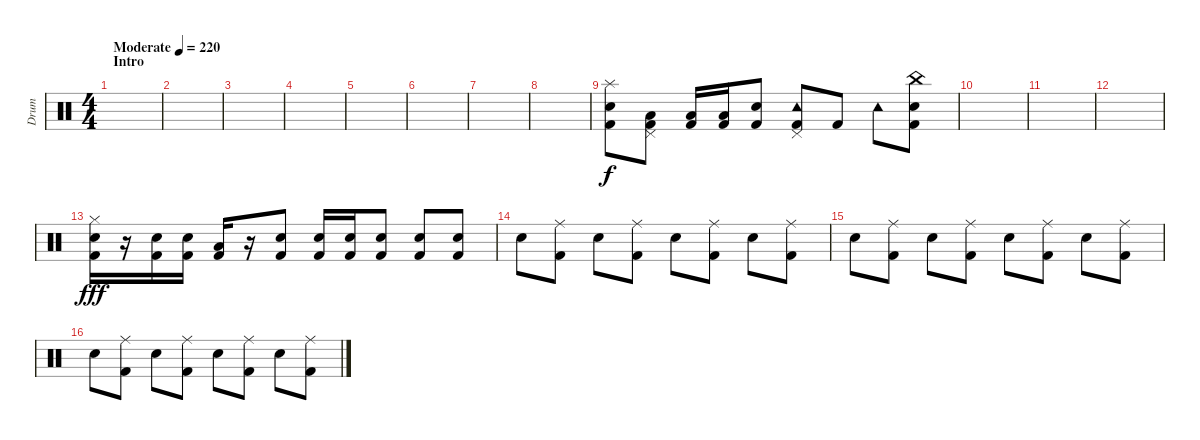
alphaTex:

\track ("Drum" "Drum") {instrument percussion}
\staff {score}
\articulation defaults
\ts (4 4)
\section ("" "Intro")
\tempo (220 "Moderate")
\clef neutral
\ks c
|
|
|
|
|
|
|
|
("Splash (hit)" "Electric Snare (hit)" "Kick (hit) 2").8 ("Pedal Hi-Hat (hit)" "Low Tom (hit)" "Kick (hit) 2").8 ("Low Tom (hit)" "Kick (hit) 2").16 ("Low Tom (hit)" "Kick (hit) 2").16 ("Electric Snare (hit)" "Kick (hit) 2").8 ("Pedal Hi-Hat (hit)" "Tambourine (hit)" "Kick (hit) 2").8 "Kick (hit) 2".8 "Tambourine (hit)".8 ("China (hit)" "Electric Snare (hit)" "Kick (hit) 2").8 |
|
|
|
("Hi-Hat (closed)" "Electric Snare (hit)" "Kick (hit) 2").16{dy fff} r.16 ("Electric Snare (hit)" "Kick (hit) 2").16 ("Electric Snare (hit)" "Kick (hit) 2").16 ("Low Tom (hit)" "Kick (hit) 2").16 r.16 ("Electric Snare (hit)" "Kick (hit) 2").8 ("Electric Snare (hit)" "Kick (hit) 2").16 ("Electric Snare (hit)" "Kick (hit) 2").16 ("Electric Snare (hit)" "Kick (hit) 2").8 ("Electric Snare (hit)" "Kick (hit) 2").8 ("Electric Snare (hit)" "Kick (hit) 2").8 |
"Electric Snare (hit)".8 ("Ride (middle)" "Kick (hit) 2").8 "Electric Snare (hit)".8 ("Ride (middle)" "Kick (hit) 2").8 "Electric Snare (hit)".8 ("Ride (middle)" "Kick (hit) 2").8 "Electric Snare (hit)".8 ("Ride (middle)" "Kick (hit) 2").8 |
"Electric Snare (hit)".8 ("Ride (middle)" "Kick (hit) 2").8 "Electric Snare (hit)".8 ("Ride (middle)" "Kick (hit) 2").8 "Electric Snare (hit)".8 ("Ride (middle)" "Kick (hit) 2").8 "Electric Snare (hit)".8 ("Ride (middle)" "Kick (hit) 2").8 |
"Electric Snare (hit)".8 ("Ride (middle)" "Kick (hit) 2").8 "Electric Snare (hit)".8 ("Ride (middle)" "Kick (hit) 2").8 "Electric Snare (hit)".8 ("Ride (middle)" "Kick (hit) 2").8 "Electric Snare (hit)".8 ("Ride (middle)" "Kick (hit) 2").8
